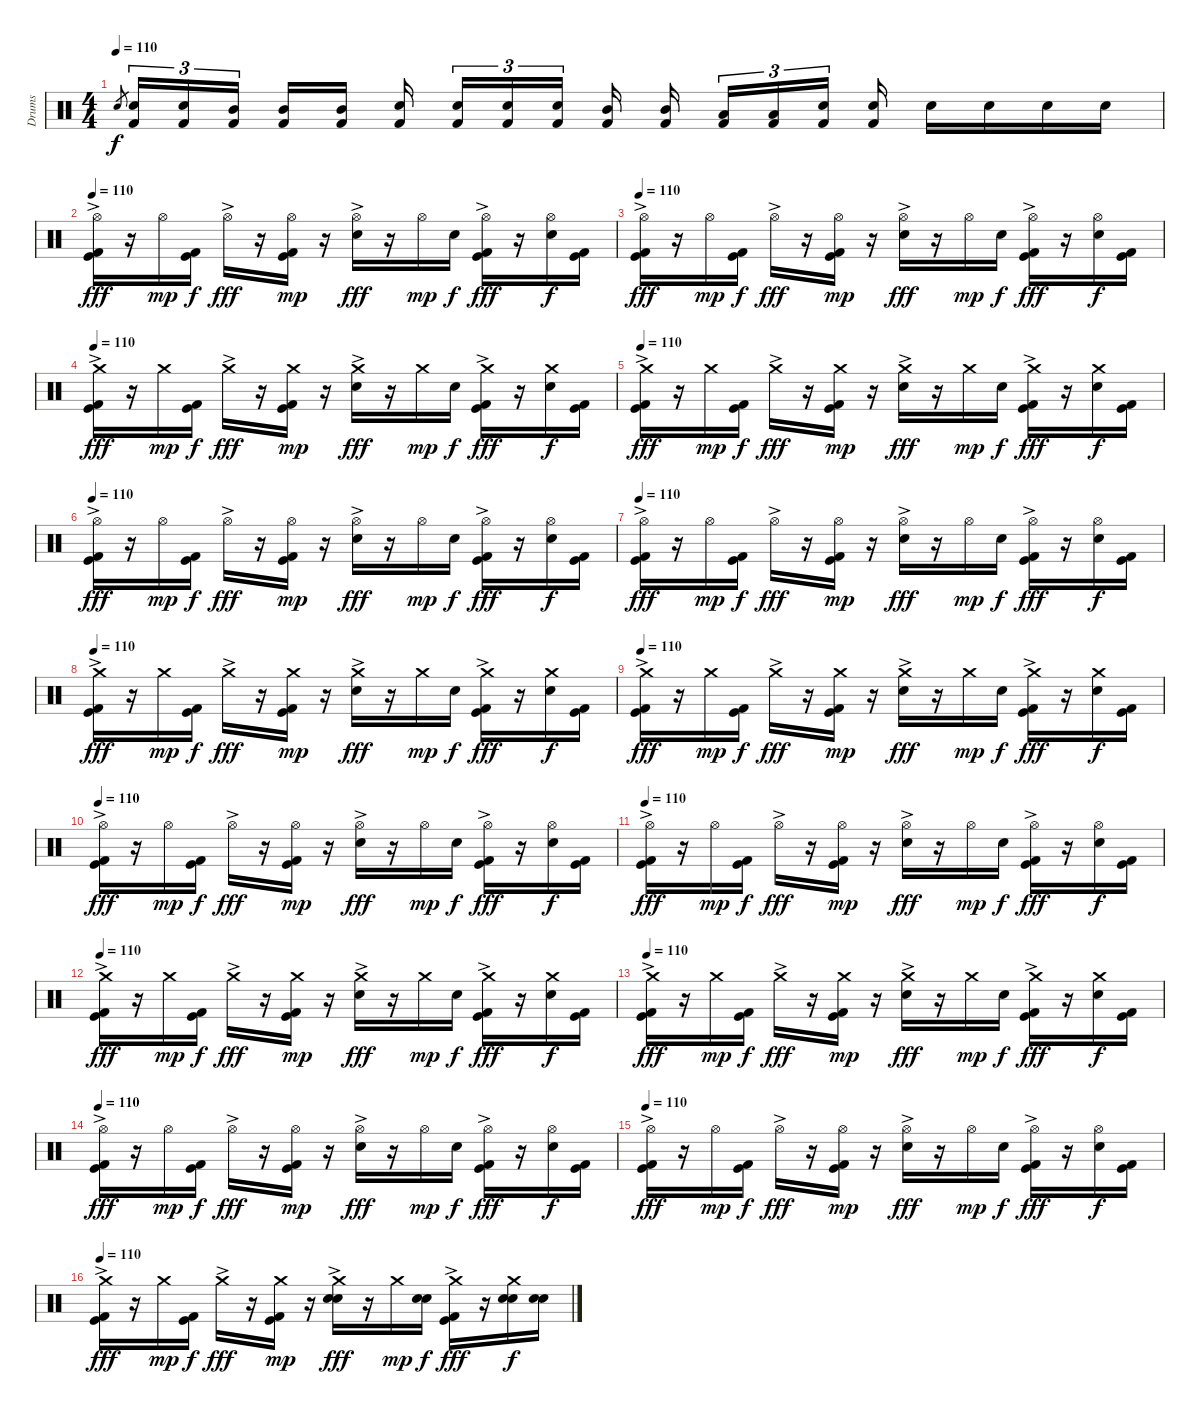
\track ("Drums" "Drums") {instrument percussion}
\staff {score}
\articulation defaults
\ts (4 4)
\tempo 110
\clef neutral
\ks c "Electric Snare (hit)".8{gr dy f}
("Electric Snare (hit)" "Kick (hit) 2").16{tu (3 2)} ("Electric Snare (hit)" "Kick (hit) 2").16{tu (3 2)} ("Mid Tom (hit)" "Kick (hit) 2").16{tu (3 2)} ("Mid Tom (hit)" "Kick (hit) 2").16 ("Mid Tom (hit)" "Kick (hit) 2").16 ("Electric Snare (hit)" "Kick (hit) 2").16 ("Electric Snare (hit)" "Kick (hit) 2").16{tu (3 2)} ("Electric Snare (hit)" "Kick (hit) 2").16{tu (3 2)} ("Electric Snare (hit)" "Kick (hit) 2").16{tu (3 2)} ("Mid Tom (hit)" "Kick (hit) 2").16 ("Mid Tom (hit)" "Kick (hit) 2").16 ("Low Tom (hit)" "Kick (hit) 2").16{tu (3 2)} ("Low Tom (hit)" "Kick (hit) 2").16{tu (3 2)} ("Electric Snare (hit)" "Kick (hit) 2").16{tu (3 2)} ("Electric Snare (hit)" "Kick (hit) 2").16 "Electric Snare (hit)".16 "Electric Snare (hit)".16 "Electric Snare (hit)".16 "Electric Snare (hit)".16 |
\tempo 110
("Hi-Hat (open)"{ac} "Kick (hit)" "Kick (hit) 2").16{dy fff} r.16 "Hi-Hat (open)".16{dy mp} ("Kick (hit)" "Kick (hit) 2").16{dy f} "Hi-Hat (open)"{ac}.16{dy fff} r.16 ("Hi-Hat (open)" "Kick (hit)" "Kick (hit) 2").16{dy mp} r.16 ("Hi-Hat (open)"{ac} "Electric Snare (hit)").16{dy fff} r.16 "Hi-Hat (open)".16{dy mp} "Electric Snare (hit)".16{dy f} ("Hi-Hat (open)"{ac} "Kick (hit)" "Kick (hit) 2").16{dy fff} r.16 ("Hi-Hat (open)" "Electric Snare (hit)").16{dy f} ("Kick (hit)" "Kick (hit) 2").16 |
\tempo 110
("Hi-Hat (open)"{ac} "Kick (hit)" "Kick (hit) 2").16{dy fff} r.16 "Hi-Hat (open)".16{dy mp} ("Kick (hit)" "Kick (hit) 2").16{dy f} "Hi-Hat (open)"{ac}.16{dy fff} r.16 ("Hi-Hat (open)" "Kick (hit)" "Kick (hit) 2").16{dy mp} r.16 ("Hi-Hat (open)"{ac} "Electric Snare (hit)").16{dy fff} r.16 "Hi-Hat (open)".16{dy mp} "Electric Snare (hit)".16{dy f} ("Hi-Hat (open)"{ac} "Kick (hit)" "Kick (hit) 2").16{dy fff} r.16 ("Hi-Hat (open)" "Electric Snare (hit)").16{dy f} ("Kick (hit)" "Kick (hit) 2").16 |
\tempo 110
("Crash medium (hit)"{ac} "Kick (hit)" "Kick (hit) 2").16{dy fff} r.16 "Crash medium (hit)".16{dy mp} ("Kick (hit)" "Kick (hit) 2").16{dy f} "Crash medium (hit)"{ac}.16{dy fff} r.16 ("Crash medium (hit)" "Kick (hit)" "Kick (hit) 2").16{dy mp} r.16 ("Crash medium (hit)"{ac} "Electric Snare (hit)").16{dy fff} r.16 "Crash medium (hit)".16{dy mp} "Electric Snare (hit)".16{dy f} ("Crash medium (hit)"{ac} "Kick (hit)" "Kick (hit) 2").16{dy fff} r.16 ("Crash medium (hit)" "Electric Snare (hit)").16{dy f} ("Kick (hit)" "Kick (hit) 2").16 |
\tempo 110
("Crash medium (hit)"{ac} "Kick (hit)" "Kick (hit) 2").16{dy fff} r.16 "Crash medium (hit)".16{dy mp} ("Kick (hit)" "Kick (hit) 2").16{dy f} "Crash medium (hit)"{ac}.16{dy fff} r.16 ("Crash medium (hit)" "Kick (hit)" "Kick (hit) 2").16{dy mp} r.16 ("Crash medium (hit)"{ac} "Electric Snare (hit)").16{dy fff} r.16 "Crash medium (hit)".16{dy mp} "Electric Snare (hit)".16{dy f} ("Crash medium (hit)"{ac} "Kick (hit)" "Kick (hit) 2").16{dy fff} r.16 ("Crash medium (hit)" "Electric Snare (hit)").16{dy f} ("Kick (hit)" "Kick (hit) 2").16 |
\tempo 110
("Hi-Hat (open)"{ac} "Kick (hit)" "Kick (hit) 2").16{dy fff} r.16 "Hi-Hat (open)".16{dy mp} ("Kick (hit)" "Kick (hit) 2").16{dy f} "Hi-Hat (open)"{ac}.16{dy fff} r.16 ("Hi-Hat (open)" "Kick (hit)" "Kick (hit) 2").16{dy mp} r.16 ("Hi-Hat (open)"{ac} "Electric Snare (hit)").16{dy fff} r.16 "Hi-Hat (open)".16{dy mp} "Electric Snare (hit)".16{dy f} ("Hi-Hat (open)"{ac} "Kick (hit)" "Kick (hit) 2").16{dy fff} r.16 ("Hi-Hat (open)" "Electric Snare (hit)").16{dy f} ("Kick (hit)" "Kick (hit) 2").16 |
\tempo 110
("Hi-Hat (open)"{ac} "Kick (hit)" "Kick (hit) 2").16{dy fff} r.16 "Hi-Hat (open)".16{dy mp} ("Kick (hit)" "Kick (hit) 2").16{dy f} "Hi-Hat (open)"{ac}.16{dy fff} r.16 ("Hi-Hat (open)" "Kick (hit)" "Kick (hit) 2").16{dy mp} r.16 ("Hi-Hat (open)"{ac} "Electric Snare (hit)").16{dy fff} r.16 "Hi-Hat (open)".16{dy mp} "Electric Snare (hit)".16{dy f} ("Hi-Hat (open)"{ac} "Kick (hit)" "Kick (hit) 2").16{dy fff} r.16 ("Hi-Hat (open)" "Electric Snare (hit)").16{dy f} ("Kick (hit)" "Kick (hit) 2").16 |
\tempo 110
("Crash medium (hit)"{ac} "Kick (hit)" "Kick (hit) 2").16{dy fff} r.16 "Crash medium (hit)".16{dy mp} ("Kick (hit)" "Kick (hit) 2").16{dy f} "Crash medium (hit)"{ac}.16{dy fff} r.16 ("Crash medium (hit)" "Kick (hit)" "Kick (hit) 2").16{dy mp} r.16 ("Crash medium (hit)"{ac} "Electric Snare (hit)").16{dy fff} r.16 "Crash medium (hit)".16{dy mp} "Electric Snare (hit)".16{dy f} ("Crash medium (hit)"{ac} "Kick (hit)" "Kick (hit) 2").16{dy fff} r.16 ("Crash medium (hit)" "Electric Snare (hit)").16{dy f} ("Kick (hit)" "Kick (hit) 2").16 |
\tempo 110
("Crash medium (hit)"{ac} "Kick (hit)" "Kick (hit) 2").16{dy fff} r.16 "Crash medium (hit)".16{dy mp} ("Kick (hit)" "Kick (hit) 2").16{dy f} "Crash medium (hit)"{ac}.16{dy fff} r.16 ("Crash medium (hit)" "Kick (hit)" "Kick (hit) 2").16{dy mp} r.16 ("Crash medium (hit)"{ac} "Electric Snare (hit)").16{dy fff} r.16 "Crash medium (hit)".16{dy mp} "Electric Snare (hit)".16{dy f} ("Crash medium (hit)"{ac} "Kick (hit)" "Kick (hit) 2").16{dy fff} r.16 ("Crash medium (hit)" "Electric Snare (hit)").16{dy f} ("Kick (hit)" "Kick (hit) 2").16 |
\tempo 110
("Hi-Hat (open)"{ac} "Kick (hit)" "Kick (hit) 2").16{dy fff} r.16 "Hi-Hat (open)".16{dy mp} ("Kick (hit)" "Kick (hit) 2").16{dy f} "Hi-Hat (open)"{ac}.16{dy fff} r.16 ("Hi-Hat (open)" "Kick (hit)" "Kick (hit) 2").16{dy mp} r.16 ("Hi-Hat (open)"{ac} "Electric Snare (hit)").16{dy fff} r.16 "Hi-Hat (open)".16{dy mp} "Electric Snare (hit)".16{dy f} ("Hi-Hat (open)"{ac} "Kick (hit)" "Kick (hit) 2").16{dy fff} r.16 ("Hi-Hat (open)" "Electric Snare (hit)").16{dy f} ("Kick (hit)" "Kick (hit) 2").16 |
\tempo 110
("Hi-Hat (open)"{ac} "Kick (hit)" "Kick (hit) 2").16{dy fff} r.16 "Hi-Hat (open)".16{dy mp} ("Kick (hit)" "Kick (hit) 2").16{dy f} "Hi-Hat (open)"{ac}.16{dy fff} r.16 ("Hi-Hat (open)" "Kick (hit)" "Kick (hit) 2").16{dy mp} r.16 ("Hi-Hat (open)"{ac} "Electric Snare (hit)").16{dy fff} r.16 "Hi-Hat (open)".16{dy mp} "Electric Snare (hit)".16{dy f} ("Hi-Hat (open)"{ac} "Kick (hit)" "Kick (hit) 2").16{dy fff} r.16 ("Hi-Hat (open)" "Electric Snare (hit)").16{dy f} ("Kick (hit)" "Kick (hit) 2").16 |
\tempo 110
("Crash medium (hit)"{ac} "Kick (hit)" "Kick (hit) 2").16{dy fff} r.16 "Crash medium (hit)".16{dy mp} ("Kick (hit)" "Kick (hit) 2").16{dy f} "Crash medium (hit)"{ac}.16{dy fff} r.16 ("Crash medium (hit)" "Kick (hit)" "Kick (hit) 2").16{dy mp} r.16 ("Crash medium (hit)"{ac} "Electric Snare (hit)").16{dy fff} r.16 "Crash medium (hit)".16{dy mp} "Electric Snare (hit)".16{dy f} ("Crash medium (hit)"{ac} "Kick (hit)" "Kick (hit) 2").16{dy fff} r.16 ("Crash medium (hit)" "Electric Snare (hit)").16{dy f} ("Kick (hit)" "Kick (hit) 2").16 |
\tempo 110
("Crash medium (hit)"{ac} "Kick (hit)" "Kick (hit) 2").16{dy fff} r.16 "Crash medium (hit)".16{dy mp} ("Kick (hit)" "Kick (hit) 2").16{dy f} "Crash medium (hit)"{ac}.16{dy fff} r.16 ("Crash medium (hit)" "Kick (hit)" "Kick (hit) 2").16{dy mp} r.16 ("Crash medium (hit)"{ac} "Electric Snare (hit)").16{dy fff} r.16 "Crash medium (hit)".16{dy mp} "Electric Snare (hit)".16{dy f} ("Crash medium (hit)"{ac} "Kick (hit)" "Kick (hit) 2").16{dy fff} r.16 ("Crash medium (hit)" "Electric Snare (hit)").16{dy f} ("Kick (hit)" "Kick (hit) 2").16 |
\tempo 110
("Hi-Hat (open)"{ac} "Kick (hit)" "Kick (hit) 2").16{dy fff} r.16 "Hi-Hat (open)".16{dy mp} ("Kick (hit)" "Kick (hit) 2").16{dy f} "Hi-Hat (open)"{ac}.16{dy fff} r.16 ("Hi-Hat (open)" "Kick (hit)" "Kick (hit) 2").16{dy mp} r.16 ("Hi-Hat (open)"{ac} "Electric Snare (hit)").16{dy fff} r.16 "Hi-Hat (open)".16{dy mp} "Electric Snare (hit)".16{dy f} ("Hi-Hat (open)"{ac} "Kick (hit)" "Kick (hit) 2").16{dy fff} r.16 ("Hi-Hat (open)" "Electric Snare (hit)").16{dy f} ("Kick (hit)" "Kick (hit) 2").16 |
\tempo 110
("Hi-Hat (open)"{ac} "Kick (hit)" "Kick (hit) 2").16{dy fff} r.16 "Hi-Hat (open)".16{dy mp} ("Kick (hit)" "Kick (hit) 2").16{dy f} "Hi-Hat (open)"{ac}.16{dy fff} r.16 ("Hi-Hat (open)" "Kick (hit)" "Kick (hit) 2").16{dy mp} r.16 ("Hi-Hat (open)"{ac} "Electric Snare (hit)").16{dy fff} r.16 "Hi-Hat (open)".16{dy mp} "Electric Snare (hit)".16{dy f} ("Hi-Hat (open)"{ac} "Kick (hit)" "Kick (hit) 2").16{dy fff} r.16 ("Hi-Hat (open)" "Electric Snare (hit)").16{dy f} ("Kick (hit)" "Kick (hit) 2").16 |
\tempo 110
("Crash medium (hit)"{ac} "Kick (hit)" "Kick (hit) 2").16{dy fff} r.16 "Crash medium (hit)".16{dy mp} ("Kick (hit)" "Kick (hit) 2").16{dy f} "Crash medium (hit)"{ac}.16{dy fff} r.16 ("Crash medium (hit)" "Kick (hit)" "Kick (hit) 2").16{dy mp} r.16 ("Crash medium (hit)"{ac} "Electric Snare (hit)" "Electric Snare (hit)").16{dy fff} r.16 "Crash medium (hit)".16{dy mp} ("Electric Snare (hit)" "Electric Snare (hit)").16{dy f} ("Crash medium (hit)"{ac} "Kick (hit)" "Kick (hit) 2").16{dy fff} r.16 ("Crash medium (hit)" "Electric Snare (hit)" "Electric Snare (hit)").16{dy f} ("Electric Snare (hit)" "Electric Snare (hit)").16
